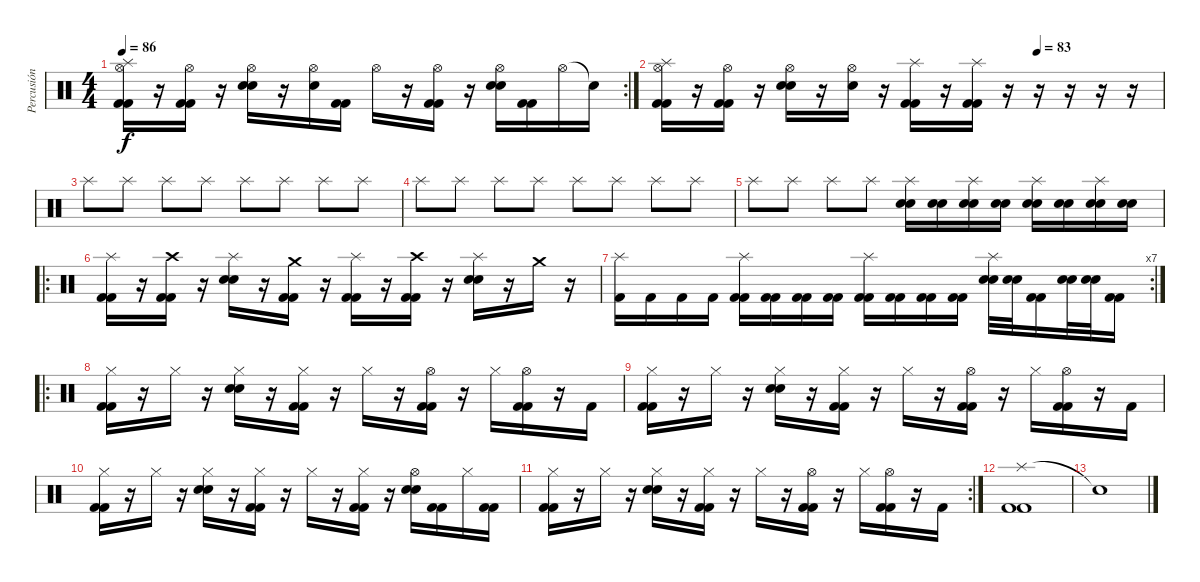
\track ("Percusión" "Percusión") {instrument percussion}
\staff {score}
\articulation defaults
\rc 2
\ts (4 4)
\tempo 86
\clef neutral
\ks c
("Hi-Hat (open)" "Splash (hit)" "Kick (hit) 2" "Kick (hit) 2").16{dy f} r.16 ("Hi-Hat (open)" "Kick (hit) 2" "Kick (hit) 2").16 r.16 ("Hi-Hat (open)" "Electric Snare (hit)" "Electric Snare (hit)").16 r.16 ("Hi-Hat (open)" "Electric Snare (hit)").16 ("Kick (hit) 2" "Kick (hit) 2").16 "Hi-Hat (open)".16 r.16 ("Hi-Hat (open)" "Kick (hit) 2" "Kick (hit) 2").16 r.16 ("Hi-Hat (open)" "Electric Snare (hit)" "Electric Snare (hit)").16 ("Kick (hit) 2" "Kick (hit) 2").16 "Hi-Hat (open)".16 "Snare (hit)"{t}.16 |
\tempo (83 0.75)
("Hi-Hat (open)" "Splash (hit)" "Kick (hit) 2" "Kick (hit) 2").16 r.16 ("Hi-Hat (open)" "Kick (hit) 2" "Kick (hit) 2").16 r.16 ("Hi-Hat (open)" "Electric Snare (hit)" "Electric Snare (hit)").16 r.16 ("Hi-Hat (open)" "Electric Snare (hit)").16 r.16 ("Splash (hit)" "Kick (hit) 2" "Kick (hit) 2").16 r.16 ("Splash (hit)" "Kick (hit) 2" "Kick (hit) 2").16 r.16 r.16 r.16 r.16 r.16 |
"Splash (hit)".8 "Splash (hit)".8 "Splash (hit)".8 "Splash (hit)".8 "Splash (hit)".8 "Splash (hit)".8 "Splash (hit)".8 "Splash (hit)".8 |
"Splash (hit)".8 "Splash (hit)".8 "Splash (hit)".8 "Splash (hit)".8 "Splash (hit)".8 "Splash (hit)".8 "Splash (hit)".8 "Splash (hit)".8 |
"Splash (hit)".8 "Splash (hit)".8 "Splash (hit)".8 "Splash (hit)".8 ("Splash (hit)" "Electric Snare (hit)" "Electric Snare (hit)").16 ("Electric Snare (hit)" "Electric Snare (hit)").16 ("Splash (hit)" "Electric Snare (hit)" "Electric Snare (hit)").16 ("Electric Snare (hit)" "Electric Snare (hit)").16 ("Splash (hit)" "Electric Snare (hit)" "Electric Snare (hit)").16 ("Electric Snare (hit)" "Electric Snare (hit)").16 ("Splash (hit)" "Electric Snare (hit)" "Electric Snare (hit)").16 ("Electric Snare (hit)" "Electric Snare (hit)").16 |
\ro
("Splash (hit)" "Kick (hit) 2" "Kick (hit) 2").16 r.16 ("Crash high (hit)" "Kick (hit) 2" "Kick (hit) 2").16 r.16 ("Splash (hit)" "Electric Snare (hit)" "Electric Snare (hit)").16 r.16 ("Crash medium (hit)" "Kick (hit) 2" "Kick (hit) 2").16 r.16 ("Splash (hit)" "Kick (hit) 2" "Kick (hit) 2").16 r.16 ("Crash high (hit)" "Kick (hit) 2" "Kick (hit) 2").16 r.16 ("Splash (hit)" "Electric Snare (hit)" "Electric Snare (hit)").16 r.16 "Crash medium (hit)".16 r.16 |
\rc 7
("Splash (hit)" "Kick (hit) 2").16 "Kick (hit) 2".16 "Kick (hit) 2".16 "Kick (hit) 2".16 ("Splash (hit)" "Kick (hit) 2" "Kick (hit) 2").16 ("Kick (hit) 2" "Kick (hit) 2").16 ("Kick (hit) 2" "Kick (hit) 2").16 ("Kick (hit) 2" "Kick (hit) 2").16 ("Splash (hit)" "Kick (hit) 2" "Kick (hit) 2").16 ("Kick (hit) 2" "Kick (hit) 2").16 ("Kick (hit) 2" "Kick (hit) 2").16 ("Kick (hit) 2" "Kick (hit) 2").16 ("Splash (hit)" "Electric Snare (hit)" "Electric Snare (hit)").32 ("Electric Snare (hit)" "Electric Snare (hit)").32 ("Kick (hit) 2" "Kick (hit) 2").16 ("Electric Snare (hit)" "Electric Snare (hit)").32 ("Electric Snare (hit)" "Electric Snare (hit)").32 ("Kick (hit) 2" "Kick (hit) 2").16 |
\ro
("Hi-Hat (closed)" "Kick (hit) 2" "Kick (hit) 2").16 r.16 "Hi-Hat (closed)".16 r.16 ("Hi-Hat (closed)" "Electric Snare (hit)" "Electric Snare (hit)").16 r.16 ("Hi-Hat (closed)" "Kick (hit) 2" "Kick (hit) 2").16 r.16 "Hi-Hat (closed)".16 r.16 ("Hi-Hat (open)" "Kick (hit) 2" "Kick (hit) 2").16 r.16 "Hi-Hat (closed)".16 ("Hi-Hat (open)" "Kick (hit) 2" "Kick (hit) 2").16 r.16 "Kick (hit) 2".16 |
("Hi-Hat (closed)" "Kick (hit) 2" "Kick (hit) 2").16 r.16 "Hi-Hat (closed)".16 r.16 ("Hi-Hat (closed)" "Electric Snare (hit)" "Electric Snare (hit)").16 r.16 ("Hi-Hat (closed)" "Kick (hit) 2" "Kick (hit) 2").16 r.16 "Hi-Hat (closed)".16 r.16 ("Hi-Hat (open)" "Kick (hit) 2" "Kick (hit) 2").16 r.16 "Hi-Hat (closed)".16 ("Hi-Hat (open)" "Kick (hit) 2" "Kick (hit) 2").16 r.16 "Kick (hit) 2".16 |
("Hi-Hat (closed)" "Kick (hit) 2" "Kick (hit) 2").16 r.16 "Hi-Hat (closed)".16 r.16 ("Hi-Hat (closed)" "Electric Snare (hit)" "Electric Snare (hit)").16 r.16 ("Hi-Hat (closed)" "Kick (hit) 2" "Kick (hit) 2").16 r.16 "Hi-Hat (closed)".16 r.16 ("Hi-Hat (closed)" "Kick (hit) 2" "Kick (hit) 2").16 r.16 ("Hi-Hat (open)" "Electric Snare (hit)" "Electric Snare (hit)").16 ("Kick (hit) 2" "Kick (hit) 2").16 "Hi-Hat (closed)".16 ("Kick (hit) 2" "Kick (hit) 2").16 |
\rc 2
("Hi-Hat (closed)" "Kick (hit) 2" "Kick (hit) 2").16 r.16 "Hi-Hat (closed)".16 r.16 ("Hi-Hat (closed)" "Electric Snare (hit)" "Electric Snare (hit)").16 r.16 ("Hi-Hat (closed)" "Kick (hit) 2" "Kick (hit) 2").16 r.16 "Hi-Hat (closed)".16 r.16 ("Hi-Hat (open)" "Kick (hit) 2" "Kick (hit) 2").16 r.16 "Hi-Hat (closed)".16 ("Hi-Hat (open)" "Kick (hit) 2" "Kick (hit) 2").16 r.16 "Kick (hit) 2".16 |
("Splash (hit)" "Kick (hit) 2" "Kick (hit) 2").1 |
"Snare (hit)"{t}.1
